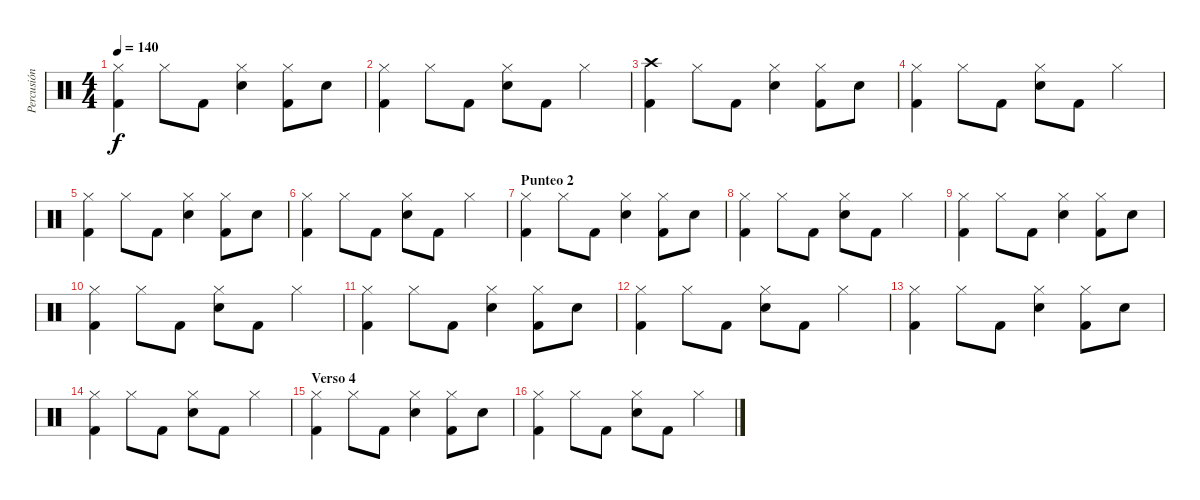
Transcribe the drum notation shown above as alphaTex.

\track ("Percusión" "Percusión") {instrument percussion}
\staff {score}
\articulation defaults
\ts (4 4)
\tempo 140
\clef neutral
\ks c
("Hi-Hat (closed)" "Kick (hit) 2").4{dy f} "Hi-Hat (closed)".8 "Kick (hit) 2".8 ("Hi-Hat (closed)" "Snare (hit) 2").4 ("Hi-Hat (closed)" "Kick (hit) 2").8 "Snare (hit) 2".8 |
("Hi-Hat (closed)" "Kick (hit) 2").4 "Hi-Hat (closed)".8 "Kick (hit) 2".8 ("Hi-Hat (closed)" "Snare (hit) 2").8 "Kick (hit) 2".8 "Hi-Hat (closed)".4 |
("Crash high (hit)" "Kick (hit) 2").4 "Hi-Hat (closed)".8 "Kick (hit) 2".8 ("Hi-Hat (closed)" "Snare (hit) 2").4 ("Hi-Hat (closed)" "Kick (hit) 2").8 "Snare (hit) 2".8 |
("Hi-Hat (closed)" "Kick (hit) 2").4 "Hi-Hat (closed)".8 "Kick (hit) 2".8 ("Hi-Hat (closed)" "Snare (hit) 2").8 "Kick (hit) 2".8 "Hi-Hat (closed)".4 |
("Hi-Hat (closed)" "Kick (hit) 2").4 "Hi-Hat (closed)".8 "Kick (hit) 2".8 ("Hi-Hat (closed)" "Snare (hit) 2").4 ("Hi-Hat (closed)" "Kick (hit) 2").8 "Snare (hit) 2".8 |
("Hi-Hat (closed)" "Kick (hit) 2").4 "Hi-Hat (closed)".8 "Kick (hit) 2".8 ("Hi-Hat (closed)" "Snare (hit) 2").8 "Kick (hit) 2".8 "Hi-Hat (closed)".4 |
\section ("" "Punteo 2")
("Hi-Hat (closed)" "Kick (hit) 2").4 "Hi-Hat (closed)".8 "Kick (hit) 2".8 ("Hi-Hat (closed)" "Snare (hit) 2").4 ("Hi-Hat (closed)" "Kick (hit) 2").8 "Snare (hit) 2".8 |
("Hi-Hat (closed)" "Kick (hit) 2").4 "Hi-Hat (closed)".8 "Kick (hit) 2".8 ("Hi-Hat (closed)" "Snare (hit) 2").8 "Kick (hit) 2".8 "Hi-Hat (closed)".4 |
("Hi-Hat (closed)" "Kick (hit) 2").4 "Hi-Hat (closed)".8 "Kick (hit) 2".8 ("Hi-Hat (closed)" "Snare (hit) 2").4 ("Hi-Hat (closed)" "Kick (hit) 2").8 "Snare (hit) 2".8 |
("Hi-Hat (closed)" "Kick (hit) 2").4 "Hi-Hat (closed)".8 "Kick (hit) 2".8 ("Hi-Hat (closed)" "Snare (hit) 2").8 "Kick (hit) 2".8 "Hi-Hat (closed)".4 |
("Hi-Hat (closed)" "Kick (hit) 2").4 "Hi-Hat (closed)".8 "Kick (hit) 2".8 ("Hi-Hat (closed)" "Snare (hit) 2").4 ("Hi-Hat (closed)" "Kick (hit) 2").8 "Snare (hit) 2".8 |
("Hi-Hat (closed)" "Kick (hit) 2").4 "Hi-Hat (closed)".8 "Kick (hit) 2".8 ("Hi-Hat (closed)" "Snare (hit) 2").8 "Kick (hit) 2".8 "Hi-Hat (closed)".4 |
("Hi-Hat (closed)" "Kick (hit) 2").4 "Hi-Hat (closed)".8 "Kick (hit) 2".8 ("Hi-Hat (closed)" "Snare (hit) 2").4 ("Hi-Hat (closed)" "Kick (hit) 2").8 "Snare (hit) 2".8 |
("Hi-Hat (closed)" "Kick (hit) 2").4 "Hi-Hat (closed)".8 "Kick (hit) 2".8 ("Hi-Hat (closed)" "Snare (hit) 2").8 "Kick (hit) 2".8 "Hi-Hat (closed)".4 |
\section ("" "Verso 4")
("Hi-Hat (closed)" "Kick (hit) 2").4 "Hi-Hat (closed)".8 "Kick (hit) 2".8 ("Hi-Hat (closed)" "Snare (hit) 2").4 ("Hi-Hat (closed)" "Kick (hit) 2").8 "Snare (hit) 2".8 |
("Hi-Hat (closed)" "Kick (hit) 2").4 "Hi-Hat (closed)".8 "Kick (hit) 2".8 ("Hi-Hat (closed)" "Snare (hit) 2").8 "Kick (hit) 2".8 "Hi-Hat (closed)".4
